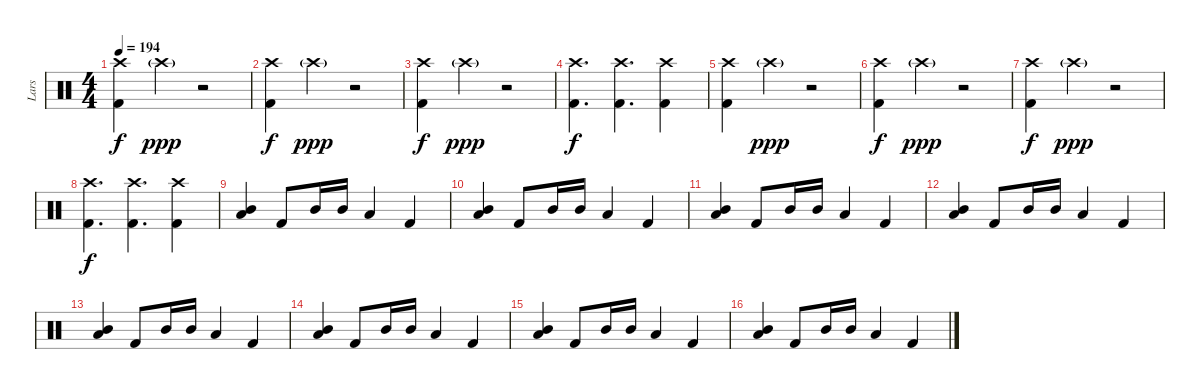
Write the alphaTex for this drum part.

\track ("Lars" "Lars") {instrument percussion}
\staff {score}
\articulation defaults
\ts (4 4)
\tempo 194
\clef neutral
\ks c
("Kick (hit) 2" "Crash high (hit)").4{dy f} "Crash high (hit)"{g}.4{dy ppp} r.2 |
("Kick (hit) 2" "Crash high (hit)").4{dy f} "Crash high (hit)"{g}.4{dy ppp} r.2 |
("Kick (hit) 2" "Crash high (hit)").4{dy f} "Crash high (hit)"{g}.4{dy ppp} r.2 |
("Kick (hit) 2" "Crash high (hit)").4{d dy f} ("Kick (hit) 2" "Crash high (hit)").4{d} ("Kick (hit) 2" "Crash high (hit)").4 |
("Kick (hit) 2" "Crash high (hit)").4 "Crash high (hit)"{g}.4{dy ppp} r.2 |
("Kick (hit) 2" "Crash high (hit)").4{dy f} "Crash high (hit)"{g}.4{dy ppp} r.2 |
("Kick (hit) 2" "Crash high (hit)").4{dy f} "Crash high (hit)"{g}.4{dy ppp} r.2 |
("Kick (hit) 2" "Crash high (hit)").4{d dy f} ("Kick (hit) 2" "Crash high (hit)").4{d} ("Kick (hit) 2" "Crash high (hit)").4 |
("Mid Tom (hit)" "Low Tom (hit)").4{bu 60} "Kick (hit) 2".8 "Mid Tom (hit)".16 "Mid Tom (hit)".16 "Low Tom (hit)".4 "Kick (hit) 2".4 |
("Mid Tom (hit)" "Low Tom (hit)").4{bu 60} "Kick (hit) 2".8 "Mid Tom (hit)".16 "Mid Tom (hit)".16 "Low Tom (hit)".4 "Kick (hit) 2".4 |
("Mid Tom (hit)" "Low Tom (hit)").4{bu 60} "Kick (hit) 2".8 "Mid Tom (hit)".16 "Mid Tom (hit)".16 "Low Tom (hit)".4 "Kick (hit) 2".4 |
("Mid Tom (hit)" "Low Tom (hit)").4{bu 60} "Kick (hit) 2".8 "Mid Tom (hit)".16 "Mid Tom (hit)".16 "Low Tom (hit)".4 "Kick (hit) 2".4 |
("Mid Tom (hit)" "Low Tom (hit)").4{bu 60} "Kick (hit) 2".8 "Mid Tom (hit)".16 "Mid Tom (hit)".16 "Low Tom (hit)".4 "Kick (hit) 2".4 |
("Mid Tom (hit)" "Low Tom (hit)").4{bu 60} "Kick (hit) 2".8 "Mid Tom (hit)".16 "Mid Tom (hit)".16 "Low Tom (hit)".4 "Kick (hit) 2".4 |
("Mid Tom (hit)" "Low Tom (hit)").4{bu 60} "Kick (hit) 2".8 "Mid Tom (hit)".16 "Mid Tom (hit)".16 "Low Tom (hit)".4 "Kick (hit) 2".4 |
("Mid Tom (hit)" "Low Tom (hit)").4{bu 60} "Kick (hit) 2".8 "Mid Tom (hit)".16 "Mid Tom (hit)".16 "Low Tom (hit)".4 "Kick (hit) 2".4
